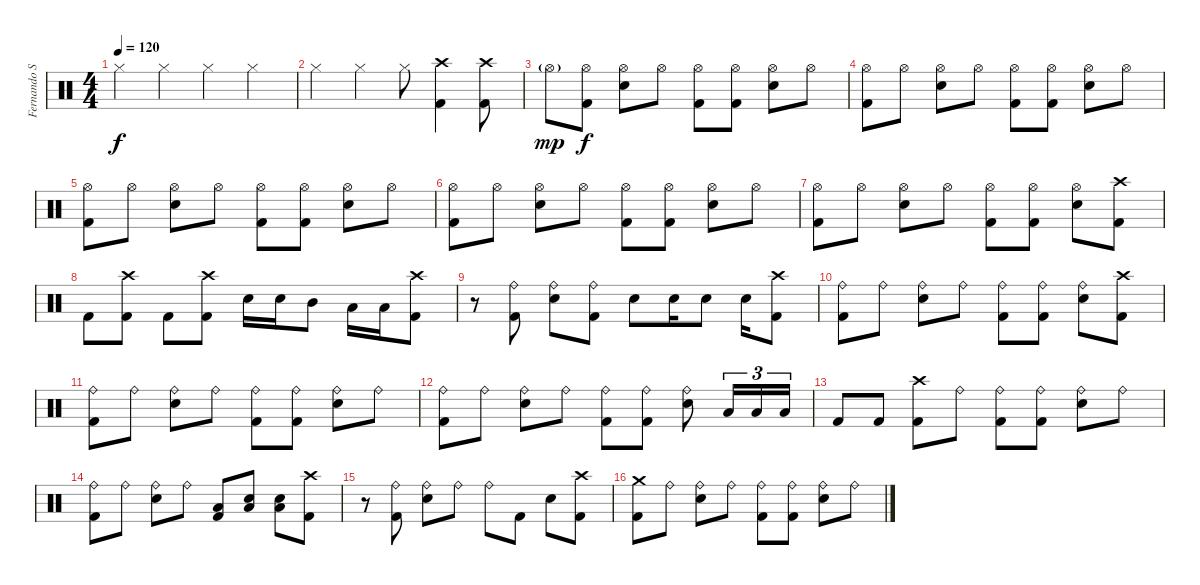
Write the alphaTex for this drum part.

\track ("Fernando Scarcella" "Fernando S") {instrument percussion}
\staff {score}
\articulation defaults
\ts (4 4)
\tempo 120
\clef neutral
\ks c "Hi-Hat (closed)".4{dy f} "Hi-Hat (closed)".4 "Hi-Hat (closed)".4 "Hi-Hat (closed)".4
|
"Hi-Hat (closed)".4 "Hi-Hat (closed)".4 "Hi-Hat (closed)".8 ("Crash high (hit)" "Kick (hit) 2").4 ("Crash high (hit)" "Kick (hit) 2").8 |
"Hi-Hat (open)"{g}.8{dy mp} ("Hi-Hat (open)" "Kick (hit) 2").8{dy f} ("Hi-Hat (open)" "Snare (hit) 2").8 "Hi-Hat (open)".8 ("Hi-Hat (open)" "Kick (hit) 2").8 ("Hi-Hat (open)" "Kick (hit) 2").8 ("Hi-Hat (open)" "Snare (hit) 2").8 "Hi-Hat (open)".8 |
("Hi-Hat (open)" "Kick (hit) 2").8 "Hi-Hat (open)".8 ("Hi-Hat (open)" "Snare (hit) 2").8 "Hi-Hat (open)".8 ("Hi-Hat (open)" "Kick (hit) 2").8 ("Hi-Hat (open)" "Kick (hit) 2").8 ("Hi-Hat (open)" "Snare (hit) 2").8 "Hi-Hat (open)".8 |
("Hi-Hat (open)" "Kick (hit) 2").8 "Hi-Hat (open)".8 ("Hi-Hat (open)" "Snare (hit) 2").8 "Hi-Hat (open)".8 ("Hi-Hat (open)" "Kick (hit) 2").8 ("Hi-Hat (open)" "Kick (hit) 2").8 ("Hi-Hat (open)" "Snare (hit) 2").8 "Hi-Hat (open)".8 |
("Hi-Hat (open)" "Kick (hit) 2").8 "Hi-Hat (open)".8 ("Hi-Hat (open)" "Snare (hit) 2").8 "Hi-Hat (open)".8 ("Hi-Hat (open)" "Kick (hit) 2").8 ("Hi-Hat (open)" "Kick (hit) 2").8 ("Hi-Hat (open)" "Snare (hit) 2").8 "Hi-Hat (open)".8 |
("Hi-Hat (open)" "Kick (hit) 2").8 "Hi-Hat (open)".8 ("Hi-Hat (open)" "Snare (hit) 2").8 "Hi-Hat (open)".8 ("Hi-Hat (open)" "Kick (hit) 2").8 ("Hi-Hat (open)" "Kick (hit) 2").8 ("Hi-Hat (open)" "Snare (hit) 2").8 ("Crash high (hit)" "Kick (hit) 2").8 |
"Kick (hit) 2".8 ("Crash high (hit)" "Kick (hit) 2").8 "Kick (hit) 2".8 ("Crash high (hit)" "Kick (hit) 2").8 "Snare (hit) 2".16 "Snare (hit) 2".16 "Mid Tom (hit)".8 "Low Tom (hit)".16 "Low Tom (hit)".16 ("Crash high (hit)" "Kick (hit) 2").8 |
r.8 ("Ride (bell)" "Kick (hit) 2").8 ("Ride (bell)" "Snare (hit) 2").8 ("Ride (bell)" "Kick (hit) 2").8 "Snare (hit) 2".8 "Snare (hit) 2".16 "Snare (hit) 2".8 "Snare (hit) 2".16 ("Crash high (hit)" "Kick (hit) 2").8 |
("Ride (bell)" "Kick (hit) 2").8 "Ride (bell)".8 ("Ride (bell)" "Snare (hit) 2").8 "Ride (bell)".8 ("Ride (bell)" "Kick (hit) 2").8 ("Ride (bell)" "Kick (hit) 2").8 ("Ride (bell)" "Snare (hit) 2").8 ("Crash high (hit)" "Kick (hit) 2").8 |
("Ride (bell)" "Kick (hit) 2").8 "Ride (bell)".8 ("Ride (bell)" "Snare (hit) 2").8 "Ride (bell)".8 ("Ride (bell)" "Kick (hit) 2").8 ("Ride (bell)" "Kick (hit) 2").8 ("Ride (bell)" "Snare (hit) 2").8 "Ride (bell)".8 |
("Ride (bell)" "Kick (hit) 2").8 "Ride (bell)".8 ("Ride (bell)" "Snare (hit) 2").8 "Ride (bell)".8 ("Ride (bell)" "Kick (hit) 2").8 ("Ride (bell)" "Kick (hit) 2").8 ("Ride (bell)" "Snare (hit) 2").8 "Low Tom (hit)".16{tu (3 2)} "Low Tom (hit)".16{tu (3 2)} "Low Tom (hit)".16{tu (3 2)} |
"Kick (hit) 2".8 "Kick (hit) 2".8 ("Crash high (hit)" "Kick (hit) 2").8 "Ride (bell)".8 ("Ride (bell)" "Kick (hit) 2").8 ("Ride (bell)" "Kick (hit) 2").8 ("Ride (bell)" "Snare (hit) 2").8 "Ride (bell)".8 |
("Ride (bell)" "Kick (hit) 2").8 "Ride (bell)".8 ("Ride (bell)" "Snare (hit) 2").8 "Ride (bell)".8 ("Low Tom (hit)" "Kick (hit) 2").8 ("Low Tom (hit)" "Snare (hit) 2").8 ("Low Tom (hit)" "Snare (hit) 2").8 ("Crash high (hit)" "Kick (hit) 2").8 |
r.8 ("Ride (bell)" "Kick (hit) 2").8 ("Ride (bell)" "Snare (hit) 2").8 "Ride (bell)".8 "Ride (bell)".8 "Kick (hit) 2".8 "Snare (hit) 2".8 ("Crash high (hit)" "Kick (hit) 2").8 |
("Crash medium (hit)" "Kick (hit) 2").8 "Ride (bell)".8 ("Ride (bell)" "Snare (hit) 2").8 "Ride (bell)".8 ("Ride (bell)" "Kick (hit) 2").8 ("Ride (bell)" "Kick (hit) 2").8 ("Ride (bell)" "Snare (hit) 2").8 "Ride (bell)".8
